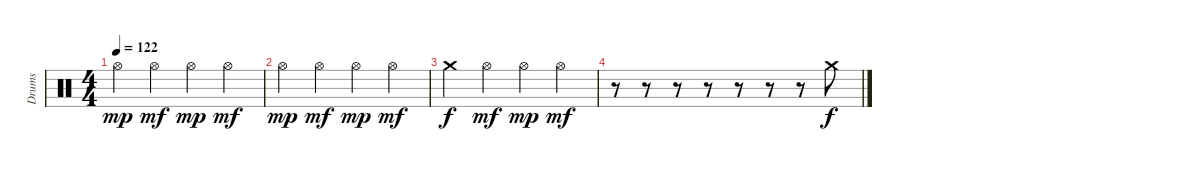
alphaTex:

\track ("Drums" "Drums") {instrument percussion}
\staff {score}
\articulation defaults
\ts (4 4)
\tempo 122
\clef neutral
\ks c "Hi-Hat (open)".4{dy mp} "Hi-Hat (open)".4{dy mf} "Hi-Hat (open)".4{dy mp} "Hi-Hat (open)".4{dy mf}
|
"Hi-Hat (open)".4{dy mp} "Hi-Hat (open)".4{dy mf} "Hi-Hat (open)".4{dy mp} "Hi-Hat (open)".4{dy mf} |
"Crash medium (hit)".4{dy f} "Hi-Hat (open)".4{dy mf} "Hi-Hat (open)".4{dy mp} "Hi-Hat (open)".4{dy mf} |
r.8 r.8 r.8 r.8 r.8 r.8 r.8 "Crash medium (hit)".8{dy f}
